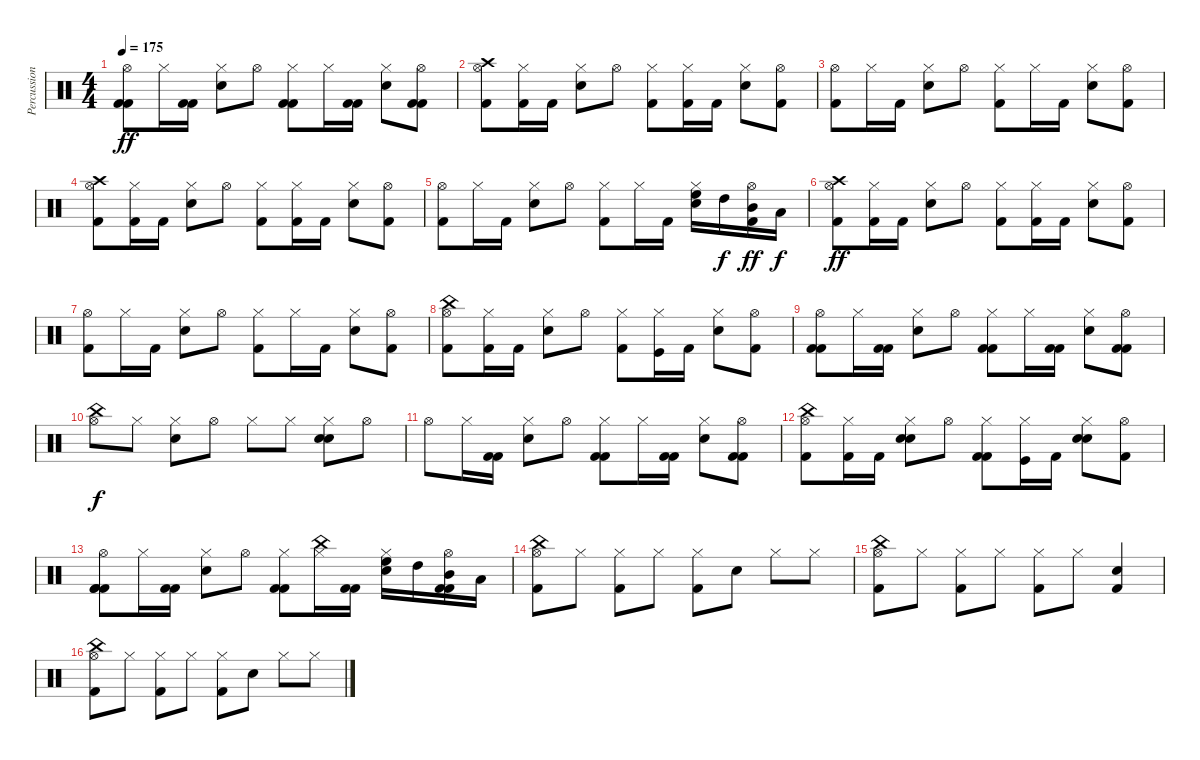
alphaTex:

\track ("Percussion" "Percussion") {instrument percussion}
\staff {score}
\articulation defaults
\ts (4 4)
\tempo 175
\clef neutral
\ks c
("Hi-Hat (open)" "Kick (hit) 2" "Kick (hit) 2").8{dy ff} "Hi-Hat (closed)".16 ("Kick (hit) 2" "Kick (hit) 2").16 ("Hi-Hat (closed)" "Electric Snare (hit)").8 "Hi-Hat (open)".8 ("Hi-Hat (closed)" "Kick (hit) 2" "Kick (hit) 2").8 "Hi-Hat (closed)".16 ("Kick (hit) 2" "Kick (hit) 2").16 ("Hi-Hat (closed)" "Electric Snare (hit)").8 ("Hi-Hat (open)" "Kick (hit) 2" "Kick (hit) 2").8 |
("Hi-Hat (open)" "Kick (hit) 2" "Crash high (hit)").8 ("Hi-Hat (closed)" "Kick (hit) 2").16 "Kick (hit) 2".16 ("Hi-Hat (closed)" "Electric Snare (hit)").8 "Hi-Hat (open)".8 ("Hi-Hat (closed)" "Kick (hit) 2").8 ("Hi-Hat (closed)" "Kick (hit) 2").16 "Kick (hit) 2".16 ("Hi-Hat (closed)" "Electric Snare (hit)").8 ("Hi-Hat (open)" "Kick (hit) 2").8 |
("Hi-Hat (open)" "Kick (hit) 2").8 "Hi-Hat (closed)".16 "Kick (hit) 2".16 ("Hi-Hat (closed)" "Electric Snare (hit)").8 "Hi-Hat (open)".8 ("Hi-Hat (closed)" "Kick (hit) 2").8 "Hi-Hat (closed)".16 "Kick (hit) 2".16 ("Hi-Hat (closed)" "Electric Snare (hit)").8 ("Hi-Hat (open)" "Kick (hit) 2").8 |
("Hi-Hat (open)" "Kick (hit) 2" "Crash high (hit)").8 ("Hi-Hat (closed)" "Kick (hit) 2").16 "Kick (hit) 2".16 ("Hi-Hat (closed)" "Electric Snare (hit)").8 "Hi-Hat (open)".8 ("Hi-Hat (closed)" "Kick (hit) 2").8 ("Hi-Hat (closed)" "Kick (hit) 2").16 "Kick (hit) 2".16 ("Hi-Hat (closed)" "Electric Snare (hit)").8 ("Hi-Hat (open)" "Kick (hit) 2").8 |
("Hi-Hat (open)" "Kick (hit) 2").8 "Hi-Hat (closed)".16 "Kick (hit) 2".16 ("Hi-Hat (closed)" "Electric Snare (hit)").8 "Hi-Hat (open)".8 ("Hi-Hat (closed)" "Kick (hit) 2").8 "Hi-Hat (closed)".16 "Kick (hit) 2".16 ("Hi-Hat (closed)" "Electric Snare (hit)" "High Floor Tom (hit)").16 "High Tom (hit)".16{dy f} ("Hi-Hat (open)" "Kick (hit) 2" "Mid Tom (hit)").16{dy ff} "Low Tom (hit)".16{dy f} |
("Hi-Hat (open)" "Kick (hit) 2" "Crash high (hit)").8{dy ff} ("Hi-Hat (closed)" "Kick (hit) 2").16 "Kick (hit) 2".16 ("Hi-Hat (closed)" "Electric Snare (hit)").8 "Hi-Hat (open)".8 ("Hi-Hat (closed)" "Kick (hit) 2").8 ("Hi-Hat (closed)" "Kick (hit) 2").16 "Kick (hit) 2".16 ("Hi-Hat (closed)" "Electric Snare (hit)").8 ("Hi-Hat (open)" "Kick (hit) 2").8 |
("Hi-Hat (open)" "Kick (hit) 2").8 "Hi-Hat (closed)".16 "Kick (hit) 2".16 ("Hi-Hat (closed)" "Electric Snare (hit)").8 "Hi-Hat (open)".8 ("Hi-Hat (closed)" "Kick (hit) 2").8 "Hi-Hat (closed)".16 "Kick (hit) 2".16 ("Hi-Hat (closed)" "Electric Snare (hit)").8 ("Hi-Hat (open)" "Kick (hit) 2").8 |
("Hi-Hat (open)" "Kick (hit) 2" "China (hit)").8 ("Hi-Hat (closed)" "Kick (hit) 2").16 "Kick (hit) 2".16 ("Hi-Hat (closed)" "Electric Snare (hit)").8 "Hi-Hat (open)".8 ("Hi-Hat (closed)" "Kick (hit) 2").8 ("Hi-Hat (closed)" "Kick (hit)").16 "Kick (hit) 2".16 ("Hi-Hat (closed)" "Electric Snare (hit)").8 ("Hi-Hat (open)" "Kick (hit) 2").8 |
("Hi-Hat (open)" "Kick (hit) 2" "Kick (hit) 2").8 "Hi-Hat (closed)".16 ("Kick (hit) 2" "Kick (hit) 2").16 ("Hi-Hat (closed)" "Electric Snare (hit)").8 "Hi-Hat (open)".8 ("Hi-Hat (closed)" "Kick (hit) 2" "Kick (hit) 2").8 "Hi-Hat (closed)".16 ("Kick (hit) 2" "Kick (hit) 2").16 ("Hi-Hat (closed)" "Electric Snare (hit)").8 ("Hi-Hat (open)" "Kick (hit) 2" "Kick (hit) 2").8 |
("Hi-Hat (open)" "China (hit)").8{dy f} "Hi-Hat (closed)".8 ("Hi-Hat (closed)" "Electric Snare (hit)").8 "Hi-Hat (open)".8 "Hi-Hat (closed)".8 "Hi-Hat (closed)".8 ("Hi-Hat (closed)" "Electric Snare (hit)" "Electric Snare (hit)").8 "Hi-Hat (open)".8 |
"Hi-Hat (open)".8 "Hi-Hat (closed)".16 ("Kick (hit) 2" "Kick (hit) 2").16 ("Hi-Hat (closed)" "Electric Snare (hit)").8 "Hi-Hat (open)".8 ("Hi-Hat (closed)" "Kick (hit) 2" "Kick (hit) 2").8 "Hi-Hat (closed)".16 ("Kick (hit) 2" "Kick (hit) 2").16 ("Hi-Hat (closed)" "Electric Snare (hit)").8 ("Hi-Hat (open)" "Kick (hit) 2" "Kick (hit) 2").8 |
("Hi-Hat (open)" "Kick (hit) 2" "China (hit)").8 ("Hi-Hat (closed)" "Kick (hit) 2").16 "Kick (hit) 2".16 ("Hi-Hat (closed)" "Electric Snare (hit)" "Snare (hit) 2").8 "Hi-Hat (open)".8 ("Hi-Hat (closed)" "Kick (hit) 2" "Kick (hit) 2").8 ("Hi-Hat (closed)" "Kick (hit)").16 "Kick (hit) 2".16 ("Hi-Hat (closed)" "Electric Snare (hit)" "Snare (hit) 2").8 ("Hi-Hat (open)" "Kick (hit) 2").8 |
("Hi-Hat (open)" "Kick (hit) 2" "Kick (hit) 2" "Kick (hit) 2").8 "Hi-Hat (closed)".16 ("Kick (hit) 2" "Kick (hit) 2").16 ("Hi-Hat (closed)" "Electric Snare (hit)").8 "Hi-Hat (open)".8 ("Hi-Hat (closed)" "Kick (hit) 2" "Kick (hit) 2").8 ("Hi-Hat (closed)" "China (hit)").16 ("Kick (hit) 2" "Kick (hit) 2").16 ("Hi-Hat (closed)" "Electric Snare (hit)" "High Floor Tom (hit)").16 "High Tom (hit)".16 ("Hi-Hat (open)" "Kick (hit) 2" "Kick (hit) 2" "Mid Tom (hit)").16 "Low Tom (hit)".16 |
("Kick (hit) 2" "Hi-Hat (open)" "China (hit)").8 "Hi-Hat (closed)".8 ("Kick (hit) 2" "Hi-Hat (closed)").8 "Hi-Hat (closed)".8 ("Kick (hit) 2" "Hi-Hat (closed)").8 "Snare (hit) 2".8 "Hi-Hat (closed)".8 "Hi-Hat (closed)".8 |
("Kick (hit) 2" "Hi-Hat (open)" "China (hit)").8 "Hi-Hat (closed)".8 ("Kick (hit) 2" "Hi-Hat (closed)").8 "Hi-Hat (closed)".8 ("Kick (hit) 2" "Hi-Hat (closed)").8 "Hi-Hat (closed)".8 ("Kick (hit) 2" "Snare (hit) 2").4 |
("Kick (hit) 2" "Hi-Hat (open)" "China (hit)").8 "Hi-Hat (closed)".8 ("Kick (hit) 2" "Hi-Hat (closed)").8 "Hi-Hat (closed)".8 ("Kick (hit) 2" "Hi-Hat (closed)").8 "Snare (hit) 2".8 "Hi-Hat (closed)".8 "Hi-Hat (closed)".8
